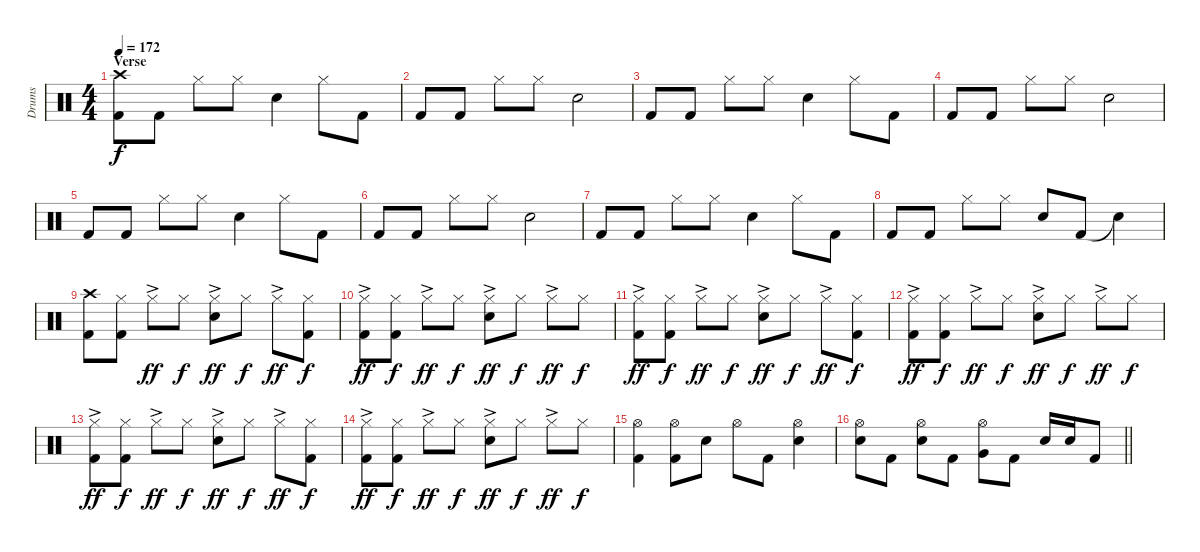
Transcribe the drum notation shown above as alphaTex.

\track ("Drums" "Drums") {instrument percussion}
\staff {score}
\articulation defaults
\ts (4 4)
\section ("" "Verse")
\tempo 172
\clef neutral
\ks c
("Crash high (hit)" "Kick (hit) 2").8{dy f} "Kick (hit) 2".8 "Hi-Hat (closed)".8 "Hi-Hat (closed)".8 "Electric Snare (hit)".4 "Hi-Hat (closed)".8 "Kick (hit) 2".8 |
"Kick (hit) 2".8 "Kick (hit) 2".8 "Hi-Hat (closed)".8 "Hi-Hat (closed)".8 "Electric Snare (hit)".2 |
"Kick (hit) 2".8 "Kick (hit) 2".8 "Hi-Hat (closed)".8 "Hi-Hat (closed)".8 "Electric Snare (hit)".4 "Hi-Hat (closed)".8 "Kick (hit) 2".8 |
"Kick (hit) 2".8 "Kick (hit) 2".8 "Hi-Hat (closed)".8 "Hi-Hat (closed)".8 "Electric Snare (hit)".2 |
"Kick (hit) 2".8 "Kick (hit) 2".8 "Hi-Hat (closed)".8 "Hi-Hat (closed)".8 "Electric Snare (hit)".4 "Hi-Hat (closed)".8 "Kick (hit) 2".8 |
"Kick (hit) 2".8 "Kick (hit) 2".8 "Hi-Hat (closed)".8 "Hi-Hat (closed)".8 "Electric Snare (hit)".2 |
"Kick (hit) 2".8 "Kick (hit) 2".8 "Hi-Hat (closed)".8 "Hi-Hat (closed)".8 "Electric Snare (hit)".4 "Hi-Hat (closed)".8 "Kick (hit) 2".8 |
"Kick (hit) 2".8 "Kick (hit) 2".8 "Hi-Hat (closed)".8 "Hi-Hat (closed)".8 "Electric Snare (hit)".8 "Kick (hit) 2".8 "Snare (hit)"{t}.4 |
("Crash high (hit)" "Kick (hit) 2").8 ("Hi-Hat (closed)" "Kick (hit) 2").8 "Hi-Hat (closed)"{ac}.8{dy ff} "Hi-Hat (closed)".8{dy f} ("Hi-Hat (closed)"{ac} "Electric Snare (hit)").8{dy ff} "Hi-Hat (closed)".8{dy f} "Hi-Hat (closed)"{ac}.8{dy ff} ("Hi-Hat (closed)" "Kick (hit) 2").8{dy f} |
("Hi-Hat (closed)"{ac} "Kick (hit) 2").8{dy ff} ("Hi-Hat (closed)" "Kick (hit) 2").8{dy f} "Hi-Hat (closed)"{ac}.8{dy ff} "Hi-Hat (closed)".8{dy f} ("Hi-Hat (closed)"{ac} "Electric Snare (hit)").8{dy ff} "Hi-Hat (closed)".8{dy f} "Hi-Hat (closed)"{ac}.8{dy ff} "Hi-Hat (closed)".8{dy f} |
("Hi-Hat (closed)"{ac} "Kick (hit) 2").8{dy ff} ("Hi-Hat (closed)" "Kick (hit) 2").8{dy f} "Hi-Hat (closed)"{ac}.8{dy ff} "Hi-Hat (closed)".8{dy f} ("Hi-Hat (closed)"{ac} "Electric Snare (hit)").8{dy ff} "Hi-Hat (closed)".8{dy f} "Hi-Hat (closed)"{ac}.8{dy ff} ("Hi-Hat (closed)" "Kick (hit) 2").8{dy f} |
("Hi-Hat (closed)"{ac} "Kick (hit) 2").8{dy ff} ("Hi-Hat (closed)" "Kick (hit) 2").8{dy f} "Hi-Hat (closed)"{ac}.8{dy ff} "Hi-Hat (closed)".8{dy f} ("Hi-Hat (closed)"{ac} "Electric Snare (hit)").8{dy ff} "Hi-Hat (closed)".8{dy f} "Hi-Hat (closed)"{ac}.8{dy ff} "Hi-Hat (closed)".8{dy f} |
("Hi-Hat (closed)"{ac} "Kick (hit) 2").8{dy ff} ("Hi-Hat (closed)" "Kick (hit) 2").8{dy f} "Hi-Hat (closed)"{ac}.8{dy ff} "Hi-Hat (closed)".8{dy f} ("Hi-Hat (closed)"{ac} "Electric Snare (hit)").8{dy ff} "Hi-Hat (closed)".8{dy f} "Hi-Hat (closed)"{ac}.8{dy ff} ("Hi-Hat (closed)" "Kick (hit) 2").8{dy f} |
("Hi-Hat (closed)"{ac} "Kick (hit) 2").8{dy ff} ("Hi-Hat (closed)" "Kick (hit) 2").8{dy f} "Hi-Hat (closed)"{ac}.8{dy ff} "Hi-Hat (closed)".8{dy f} ("Hi-Hat (closed)"{ac} "Electric Snare (hit)").8{dy ff} "Hi-Hat (closed)".8{dy f} "Hi-Hat (closed)"{ac}.8{dy ff} "Hi-Hat (closed)".8{dy f} |
("Hi-Hat (open)" "Kick (hit) 2").4 ("Hi-Hat (open)" "Kick (hit) 2").8 "Electric Snare (hit)".8 "Hi-Hat (open)".8 "Kick (hit) 2".8 ("Hi-Hat (open)" "Electric Snare (hit)").4 |
\barLineRight lightlight
("Hi-Hat (open)" "Electric Snare (hit)").8 "Kick (hit) 2".8 ("Hi-Hat (open)" "Electric Snare (hit)").8 "Kick (hit) 2".8 ("Hi-Hat (open)" "Very Low Tom (hit)").8 "Kick (hit) 2".8 "Electric Snare (hit)".16 "Electric Snare (hit)".16 "Kick (hit) 2".8
